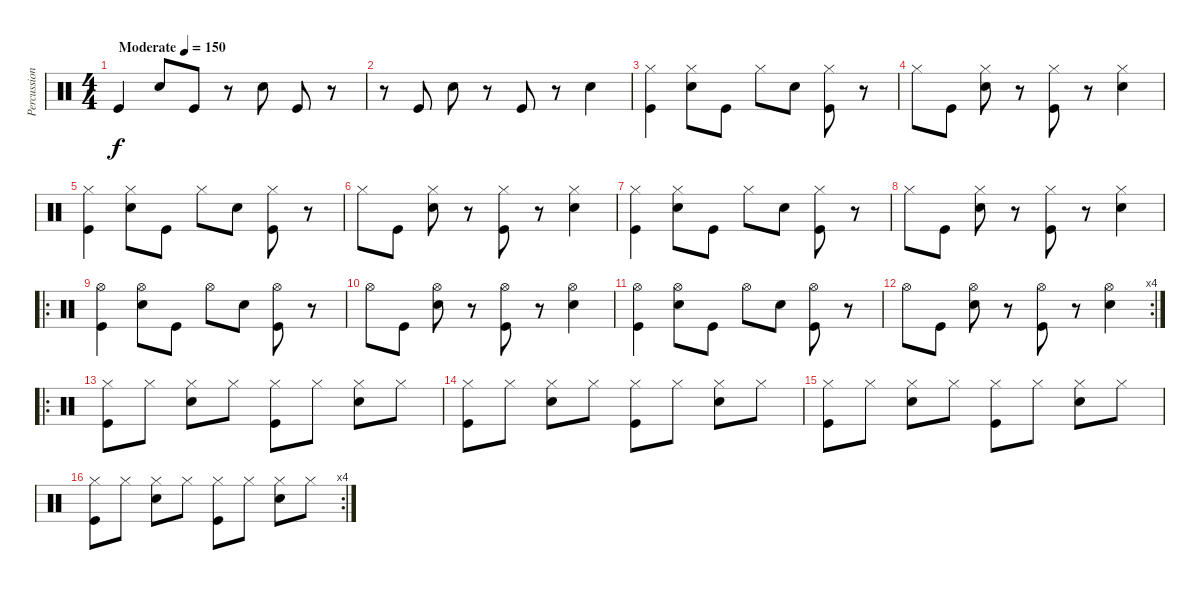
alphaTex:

\track ("Percussion" "Percussion") {instrument percussion}
\staff {score}
\articulation defaults
\ts (4 4)
\tempo (150 "Moderate")
\clef neutral
\ks c "Kick (hit)".4{dy f} "Snare (hit) 2".8 "Kick (hit)".8
r.8 "Snare (hit) 2".8 "Kick (hit)".8 r.8 |
r.8 "Kick (hit)".8 "Snare (hit) 2".8 r.8 "Kick (hit)".8 r.8 "Snare (hit) 2".4 |
("Hi-Hat (closed)" "Kick (hit)").4 ("Hi-Hat (closed)" "Snare (hit) 2").8 "Kick (hit)".8 "Hi-Hat (closed)".8 "Snare (hit) 2".8 ("Hi-Hat (closed)" "Kick (hit)").8 r.8 |
"Hi-Hat (closed)".8 "Kick (hit)".8 ("Hi-Hat (closed)" "Snare (hit) 2").8 r.8 ("Hi-Hat (closed)" "Kick (hit)").8 r.8 ("Hi-Hat (closed)" "Snare (hit) 2").4 |
("Hi-Hat (closed)" "Kick (hit)").4 ("Hi-Hat (closed)" "Snare (hit) 2").8 "Kick (hit)".8 "Hi-Hat (closed)".8 "Snare (hit) 2".8 ("Hi-Hat (closed)" "Kick (hit)").8 r.8 |
"Hi-Hat (closed)".8 "Kick (hit)".8 ("Hi-Hat (closed)" "Snare (hit) 2").8 r.8 ("Hi-Hat (closed)" "Kick (hit)").8 r.8 ("Hi-Hat (closed)" "Snare (hit) 2").4 |
("Hi-Hat (closed)" "Kick (hit)").4 ("Hi-Hat (closed)" "Snare (hit) 2").8 "Kick (hit)".8 "Hi-Hat (closed)".8 "Snare (hit) 2".8 ("Hi-Hat (closed)" "Kick (hit)").8 r.8 |
"Hi-Hat (closed)".8 "Kick (hit)".8 ("Hi-Hat (closed)" "Snare (hit) 2").8 r.8 ("Hi-Hat (closed)" "Kick (hit)").8 r.8 ("Hi-Hat (closed)" "Snare (hit) 2").4 |
\ro
("Hi-Hat (open)" "Kick (hit)").4 ("Hi-Hat (open)" "Snare (hit) 2").8 "Kick (hit)".8 "Hi-Hat (open)".8 "Snare (hit) 2".8 ("Hi-Hat (open)" "Kick (hit)").8 r.8 |
"Hi-Hat (open)".8 "Kick (hit)".8 ("Hi-Hat (open)" "Snare (hit) 2").8 r.8 ("Hi-Hat (open)" "Kick (hit)").8 r.8 ("Hi-Hat (open)" "Snare (hit) 2").4 |
("Hi-Hat (open)" "Kick (hit)").4 ("Hi-Hat (open)" "Snare (hit) 2").8 "Kick (hit)".8 "Hi-Hat (open)".8 "Snare (hit) 2".8 ("Hi-Hat (open)" "Kick (hit)").8 r.8 |
\rc 4 "Hi-Hat (open)".8 "Kick (hit)".8
("Hi-Hat (open)" "Snare (hit) 2").8 r.8 ("Hi-Hat (open)" "Kick (hit)").8 r.8 ("Hi-Hat (open)" "Snare (hit) 2").4 |
\ro
("Hi-Hat (closed)" "Kick (hit)").8 "Hi-Hat (closed)".8 ("Hi-Hat (closed)" "Snare (hit) 2").8 "Hi-Hat (closed)".8 ("Hi-Hat (closed)" "Kick (hit)").8 "Hi-Hat (closed)".8 ("Hi-Hat (closed)" "Snare (hit) 2").8 "Hi-Hat (closed)".8 |
("Hi-Hat (closed)" "Kick (hit)").8 "Hi-Hat (closed)".8 ("Hi-Hat (closed)" "Snare (hit) 2").8 "Hi-Hat (closed)".8 ("Hi-Hat (closed)" "Kick (hit)").8 "Hi-Hat (closed)".8 ("Hi-Hat (closed)" "Snare (hit) 2").8 "Hi-Hat (closed)".8 |
("Hi-Hat (closed)" "Kick (hit)").8 "Hi-Hat (closed)".8 ("Hi-Hat (closed)" "Snare (hit) 2").8 "Hi-Hat (closed)".8 ("Hi-Hat (closed)" "Kick (hit)").8 "Hi-Hat (closed)".8 ("Hi-Hat (closed)" "Snare (hit) 2").8 "Hi-Hat (closed)".8 |
\rc 4
("Hi-Hat (closed)" "Kick (hit)").8 "Hi-Hat (closed)".8 ("Hi-Hat (closed)" "Snare (hit) 2").8 "Hi-Hat (closed)".8 ("Hi-Hat (closed)" "Kick (hit)").8 "Hi-Hat (closed)".8 ("Hi-Hat (closed)" "Snare (hit) 2").8 "Hi-Hat (closed)".8
